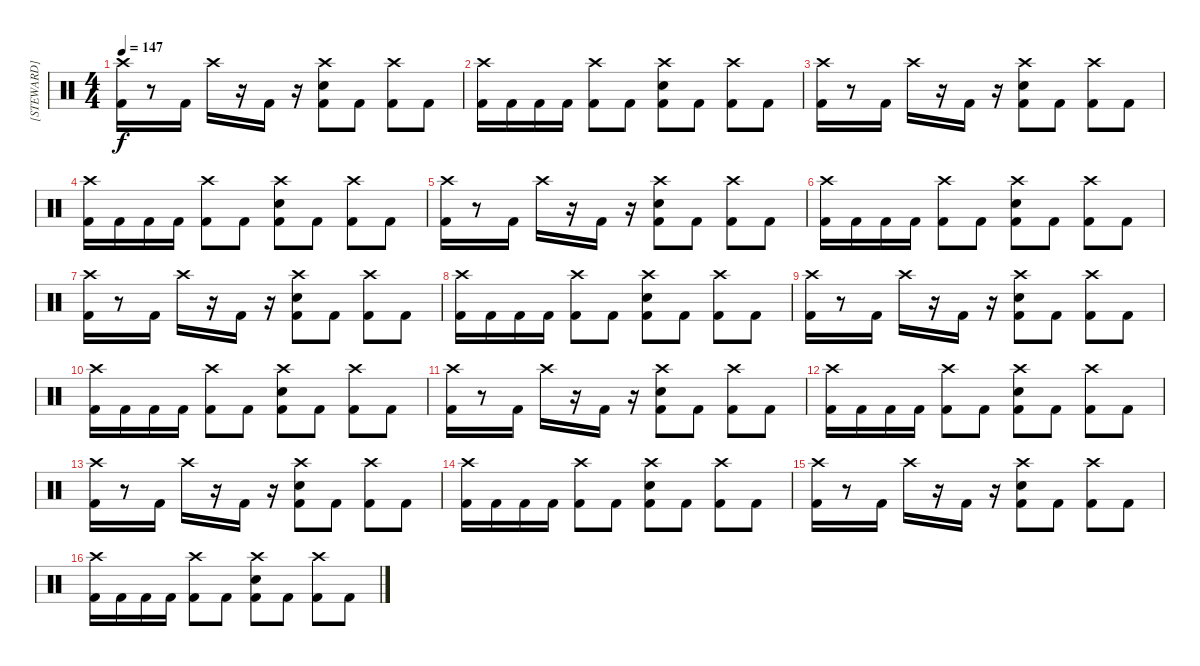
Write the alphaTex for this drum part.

\track ("[STEWARD]" "[STEWARD]") {instrument percussion}
\staff {score}
\articulation defaults
\ts (4 4)
\tempo 147
\clef neutral
\ks c
("Crash high (hit)" "Kick (hit) 2").16{dy f} r.8 "Kick (hit) 2".16 "Crash high (hit)".16 r.16 "Kick (hit) 2".16 r.16 ("Crash high (hit)" "Snare (hit) 2" "Kick (hit) 2").8 "Kick (hit) 2".8 ("Crash high (hit)" "Kick (hit) 2").8 "Kick (hit) 2".8 |
("Crash high (hit)" "Kick (hit) 2").16 "Kick (hit) 2".16 "Kick (hit) 2".16 "Kick (hit) 2".16 ("Crash high (hit)" "Kick (hit) 2").8 "Kick (hit) 2".8 ("Crash high (hit)" "Snare (hit) 2" "Kick (hit) 2").8 "Kick (hit) 2".8 ("Crash high (hit)" "Kick (hit) 2").8 "Kick (hit) 2".8 |
("Crash high (hit)" "Kick (hit) 2").16 r.8 "Kick (hit) 2".16 "Crash high (hit)".16 r.16 "Kick (hit) 2".16 r.16 ("Crash high (hit)" "Snare (hit) 2" "Kick (hit) 2").8 "Kick (hit) 2".8 ("Crash high (hit)" "Kick (hit) 2").8 "Kick (hit) 2".8 |
("Crash high (hit)" "Kick (hit) 2").16{volume 12} "Kick (hit) 2".16 "Kick (hit) 2".16 "Kick (hit) 2".16 ("Crash high (hit)" "Kick (hit) 2").8 "Kick (hit) 2".8 ("Crash high (hit)" "Snare (hit) 2" "Kick (hit) 2").8 "Kick (hit) 2".8 ("Crash high (hit)" "Kick (hit) 2").8 "Kick (hit) 2".8 |
("Crash high (hit)" "Kick (hit) 2").16 r.8 "Kick (hit) 2".16 "Crash high (hit)".16 r.16 "Kick (hit) 2".16 r.16 ("Crash high (hit)" "Snare (hit) 2" "Kick (hit) 2").8 "Kick (hit) 2".8 ("Crash high (hit)" "Kick (hit) 2").8 "Kick (hit) 2".8 |
("Crash high (hit)" "Kick (hit) 2").16 "Kick (hit) 2".16 "Kick (hit) 2".16 "Kick (hit) 2".16 ("Crash high (hit)" "Kick (hit) 2").8 "Kick (hit) 2".8 ("Crash high (hit)" "Snare (hit) 2" "Kick (hit) 2").8 "Kick (hit) 2".8 ("Crash high (hit)" "Kick (hit) 2").8 "Kick (hit) 2".8 |
("Crash high (hit)" "Kick (hit) 2").16 r.8 "Kick (hit) 2".16 "Crash high (hit)".16 r.16 "Kick (hit) 2".16 r.16 ("Crash high (hit)" "Snare (hit) 2" "Kick (hit) 2").8 "Kick (hit) 2".8 ("Crash high (hit)" "Kick (hit) 2").8 "Kick (hit) 2".8 |
("Crash high (hit)" "Kick (hit) 2").16{volume 8} "Kick (hit) 2".16 "Kick (hit) 2".16 "Kick (hit) 2".16 ("Crash high (hit)" "Kick (hit) 2").8 "Kick (hit) 2".8 ("Crash high (hit)" "Snare (hit) 2" "Kick (hit) 2").8 "Kick (hit) 2".8 ("Crash high (hit)" "Kick (hit) 2").8 "Kick (hit) 2".8 |
("Crash high (hit)" "Kick (hit) 2").16 r.8 "Kick (hit) 2".16 "Crash high (hit)".16 r.16 "Kick (hit) 2".16 r.16 ("Crash high (hit)" "Snare (hit) 2" "Kick (hit) 2").8 "Kick (hit) 2".8 ("Crash high (hit)" "Kick (hit) 2").8 "Kick (hit) 2".8 |
("Crash high (hit)" "Kick (hit) 2").16 "Kick (hit) 2".16 "Kick (hit) 2".16 "Kick (hit) 2".16 ("Crash high (hit)" "Kick (hit) 2").8 "Kick (hit) 2".8 ("Crash high (hit)" "Snare (hit) 2" "Kick (hit) 2").8 "Kick (hit) 2".8 ("Crash high (hit)" "Kick (hit) 2").8 "Kick (hit) 2".8 |
("Crash high (hit)" "Kick (hit) 2").16 r.8 "Kick (hit) 2".16 "Crash high (hit)".16 r.16 "Kick (hit) 2".16 r.16 ("Crash high (hit)" "Snare (hit) 2" "Kick (hit) 2").8 "Kick (hit) 2".8 ("Crash high (hit)" "Kick (hit) 2").8 "Kick (hit) 2".8 |
("Crash high (hit)" "Kick (hit) 2").16{volume 4} "Kick (hit) 2".16 "Kick (hit) 2".16 "Kick (hit) 2".16 ("Crash high (hit)" "Kick (hit) 2").8 "Kick (hit) 2".8 ("Crash high (hit)" "Snare (hit) 2" "Kick (hit) 2").8 "Kick (hit) 2".8 ("Crash high (hit)" "Kick (hit) 2").8 "Kick (hit) 2".8 |
("Crash high (hit)" "Kick (hit) 2").16 r.8 "Kick (hit) 2".16 "Crash high (hit)".16 r.16 "Kick (hit) 2".16 r.16 ("Crash high (hit)" "Snare (hit) 2" "Kick (hit) 2").8 "Kick (hit) 2".8 ("Crash high (hit)" "Kick (hit) 2").8 "Kick (hit) 2".8 |
("Crash high (hit)" "Kick (hit) 2").16 "Kick (hit) 2".16 "Kick (hit) 2".16 "Kick (hit) 2".16 ("Crash high (hit)" "Kick (hit) 2").8 "Kick (hit) 2".8 ("Crash high (hit)" "Snare (hit) 2" "Kick (hit) 2").8 "Kick (hit) 2".8 ("Crash high (hit)" "Kick (hit) 2").8 "Kick (hit) 2".8 |
("Crash high (hit)" "Kick (hit) 2").16 r.8 "Kick (hit) 2".16 "Crash high (hit)".16 r.16 "Kick (hit) 2".16 r.16 ("Crash high (hit)" "Snare (hit) 2" "Kick (hit) 2").8 "Kick (hit) 2".8 ("Crash high (hit)" "Kick (hit) 2").8 "Kick (hit) 2".8 |
("Crash high (hit)" "Kick (hit) 2").16{volume 0} "Kick (hit) 2".16 "Kick (hit) 2".16 "Kick (hit) 2".16 ("Crash high (hit)" "Kick (hit) 2").8 "Kick (hit) 2".8 ("Crash high (hit)" "Snare (hit) 2" "Kick (hit) 2").8 "Kick (hit) 2".8 ("Crash high (hit)" "Kick (hit) 2").8 "Kick (hit) 2".8
